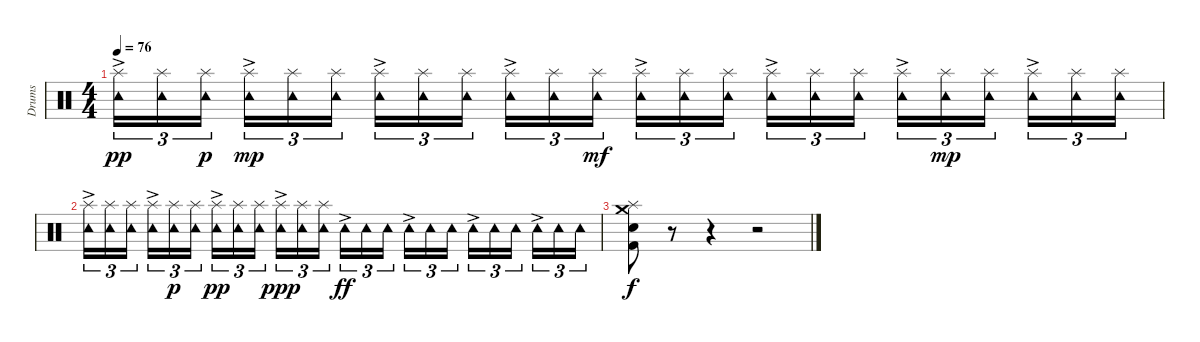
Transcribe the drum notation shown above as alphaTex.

\track ("Drums" "Drums") {instrument percussion}
\staff {score}
\articulation defaults
\ts (4 4)
\tempo 76
\clef neutral
\ks c
("Tambourine (hit)"{ac} "Splash (hit)").16{tu (3 2) dy pp} ("Tambourine (hit)" "Splash (hit)").16{tu (3 2)} ("Tambourine (hit)" "Splash (hit)").16{tu (3 2) dy p} ("Tambourine (hit)"{ac} "Splash (hit)").16{tu (3 2) dy mp} ("Tambourine (hit)" "Splash (hit)").16{tu (3 2)} ("Tambourine (hit)" "Splash (hit)").16{tu (3 2)} ("Tambourine (hit)"{ac} "Splash (hit)").16{tu (3 2)} ("Tambourine (hit)" "Splash (hit)").16{tu (3 2)} ("Tambourine (hit)" "Splash (hit)").16{tu (3 2)} ("Tambourine (hit)"{ac} "Splash (hit)").16{tu (3 2)} ("Tambourine (hit)" "Splash (hit)").16{tu (3 2)} ("Tambourine (hit)" "Splash (hit)").16{tu (3 2) dy mf} ("Tambourine (hit)"{ac} "Splash (hit)").16{tu (3 2)} ("Tambourine (hit)" "Splash (hit)").16{tu (3 2)} ("Tambourine (hit)" "Splash (hit)").16{tu (3 2)} ("Tambourine (hit)"{ac} "Splash (hit)").16{tu (3 2)} ("Tambourine (hit)" "Splash (hit)").16{tu (3 2)} ("Tambourine (hit)" "Splash (hit)").16{tu (3 2)} ("Tambourine (hit)"{ac} "Splash (hit)").16{tu (3 2)} ("Tambourine (hit)" "Splash (hit)").16{tu (3 2) dy mp} ("Tambourine (hit)" "Splash (hit)").16{tu (3 2)} ("Tambourine (hit)"{ac} "Splash (hit)").16{tu (3 2)} ("Tambourine (hit)" "Splash (hit)").16{tu (3 2)} ("Tambourine (hit)" "Splash (hit)").16{tu (3 2)} |
("Tambourine (hit)"{ac} "Splash (hit)").16{tu (3 2)} ("Tambourine (hit)" "Splash (hit)").16{tu (3 2)} ("Tambourine (hit)" "Splash (hit)").16{tu (3 2)} ("Tambourine (hit)"{ac} "Splash (hit)").16{tu (3 2)} ("Tambourine (hit)" "Splash (hit)").16{tu (3 2) dy p} ("Tambourine (hit)" "Splash (hit)").16{tu (3 2)} ("Tambourine (hit)"{ac} "Splash (hit)").16{tu (3 2) dy pp} ("Tambourine (hit)" "Splash (hit)").16{tu (3 2)} ("Tambourine (hit)" "Splash (hit)").16{tu (3 2)} ("Tambourine (hit)"{ac} "Splash (hit)").16{tu (3 2) dy ppp} ("Tambourine (hit)" "Splash (hit)").16{tu (3 2)} ("Tambourine (hit)" "Splash (hit)").16{tu (3 2)} "Tambourine (hit)"{ac}.16{tu (3 2) dy ff} "Tambourine (hit)".16{tu (3 2)} "Tambourine (hit)".16{tu (3 2)} "Tambourine (hit)"{ac}.16{tu (3 2)} "Tambourine (hit)".16{tu (3 2)} "Tambourine (hit)".16{tu (3 2)} "Tambourine (hit)"{ac}.16{tu (3 2)} "Tambourine (hit)".16{tu (3 2)} "Tambourine (hit)".16{tu (3 2)} "Tambourine (hit)"{ac}.16{tu (3 2)} "Tambourine (hit)".16{tu (3 2)} "Tambourine (hit)".16{tu (3 2)} |
("Kick (hit) 2" "Snare (hit) 2" "Splash (hit)" "Crash medium (hit)").8{dy f volume 11} r.8 r.4 r.2
